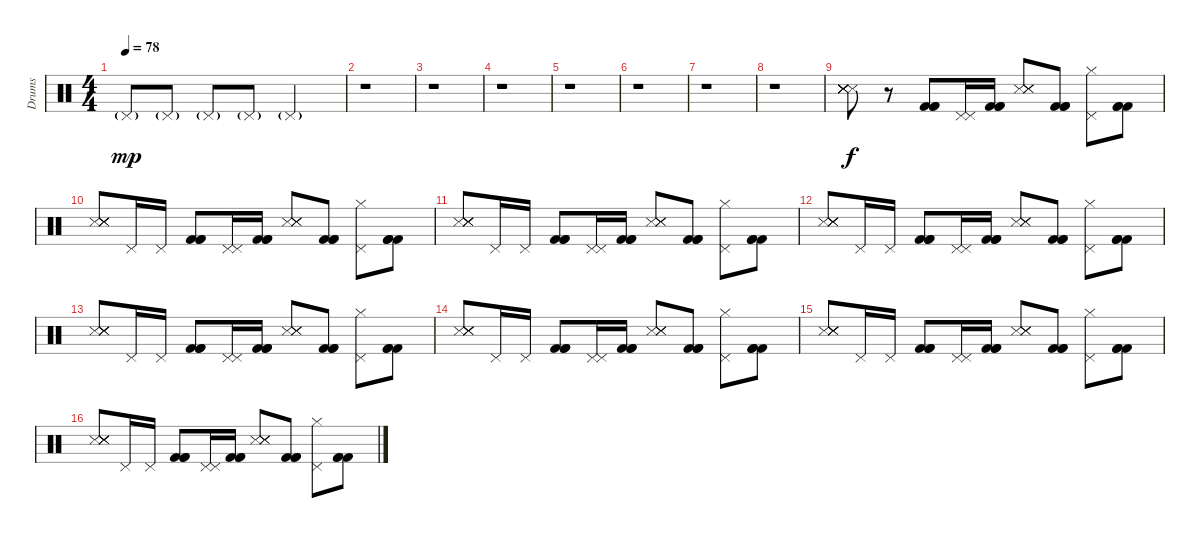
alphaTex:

\track ("Drums" "Drums") {instrument percussion}
\staff {score}
\articulation defaults
\ts (4 4)
\tempo 78
\clef neutral
\ks c "Pedal Hi-Hat (hit)"{g}.8{dy mp} "Pedal Hi-Hat (hit)"{g}.8 "Pedal Hi-Hat (hit)"{g}.8 "Pedal Hi-Hat (hit)"{g}.8 "Pedal Hi-Hat (hit)"{g}.2
|
r.1 |
r.1 |
r.1 |
r.1 |
r.1 |
r.1 |
r.1 |
("Metronome (hit)" "Metronome (hit)" "Snare (side stick) 3" "Snare (side stick) 3" "Snare (side stick) 3" "Snare (side stick) 3").8{dy f} r.8 ("Kick (hit) 2" "Kick (hit) 2" "Kick (hit) 2").8 ("Pedal Hi-Hat (hit)" "Pedal Hi-Hat (hit)").16 ("Kick (hit) 2" "Kick (hit) 2" "Kick (hit) 2").16 ("Metronome (hit)" "Metronome (hit)" "Metronome (hit)" "Snare (side stick) 3").8 ("Kick (hit) 2" "Kick (hit) 2" "Kick (hit) 2").8 ("Pedal Hi-Hat (hit)" "Hi-Hat (closed)").8 ("Kick (hit) 2" "Kick (hit) 2" "Kick (hit) 2").8 |
("Metronome (hit)" "Metronome (hit)" "Metronome (hit)" "Metronome (hit)" "Snare (side stick) 3").8 "Pedal Hi-Hat (hit)".16 "Pedal Hi-Hat (hit)".16 ("Kick (hit) 2" "Kick (hit) 2" "Kick (hit) 2").8 ("Pedal Hi-Hat (hit)" "Pedal Hi-Hat (hit)").16 ("Kick (hit) 2" "Kick (hit) 2" "Kick (hit) 2").16 ("Metronome (hit)" "Metronome (hit)" "Metronome (hit)" "Snare (side stick) 3").8 ("Kick (hit) 2" "Kick (hit) 2" "Kick (hit) 2").8 ("Pedal Hi-Hat (hit)" "Hi-Hat (closed)").8 ("Kick (hit) 2" "Kick (hit) 2" "Kick (hit) 2").8 |
("Metronome (hit)" "Metronome (hit)" "Metronome (hit)" "Metronome (hit)" "Snare (side stick) 3").8 "Pedal Hi-Hat (hit)".16 "Pedal Hi-Hat (hit)".16 ("Kick (hit) 2" "Kick (hit) 2" "Kick (hit) 2").8 ("Pedal Hi-Hat (hit)" "Pedal Hi-Hat (hit)").16 ("Kick (hit) 2" "Kick (hit) 2" "Kick (hit) 2").16 ("Metronome (hit)" "Metronome (hit)" "Metronome (hit)" "Snare (side stick) 3").8 ("Kick (hit) 2" "Kick (hit) 2" "Kick (hit) 2").8 ("Pedal Hi-Hat (hit)" "Hi-Hat (closed)").8 ("Kick (hit) 2" "Kick (hit) 2" "Kick (hit) 2").8 |
("Metronome (hit)" "Metronome (hit)" "Metronome (hit)" "Metronome (hit)" "Snare (side stick) 3").8 "Pedal Hi-Hat (hit)".16 "Pedal Hi-Hat (hit)".16 ("Kick (hit) 2" "Kick (hit) 2" "Kick (hit) 2").8 ("Pedal Hi-Hat (hit)" "Pedal Hi-Hat (hit)").16 ("Kick (hit) 2" "Kick (hit) 2" "Kick (hit) 2").16 ("Metronome (hit)" "Metronome (hit)" "Metronome (hit)" "Snare (side stick) 3").8 ("Kick (hit) 2" "Kick (hit) 2" "Kick (hit) 2").8 ("Pedal Hi-Hat (hit)" "Hi-Hat (closed)").8 ("Kick (hit) 2" "Kick (hit) 2" "Kick (hit) 2").8 |
("Metronome (hit)" "Metronome (hit)" "Metronome (hit)" "Metronome (hit)" "Snare (side stick) 3").8 "Pedal Hi-Hat (hit)".16 "Pedal Hi-Hat (hit)".16 ("Kick (hit) 2" "Kick (hit) 2" "Kick (hit) 2").8 ("Pedal Hi-Hat (hit)" "Pedal Hi-Hat (hit)").16 ("Kick (hit) 2" "Kick (hit) 2" "Kick (hit) 2").16 ("Metronome (hit)" "Metronome (hit)" "Metronome (hit)" "Snare (side stick) 3").8 ("Kick (hit) 2" "Kick (hit) 2" "Kick (hit) 2").8 ("Pedal Hi-Hat (hit)" "Hi-Hat (closed)").8 ("Kick (hit) 2" "Kick (hit) 2" "Kick (hit) 2").8 |
("Metronome (hit)" "Metronome (hit)" "Metronome (hit)" "Metronome (hit)" "Snare (side stick) 3").8 "Pedal Hi-Hat (hit)".16 "Pedal Hi-Hat (hit)".16 ("Kick (hit) 2" "Kick (hit) 2" "Kick (hit) 2").8 ("Pedal Hi-Hat (hit)" "Pedal Hi-Hat (hit)").16 ("Kick (hit) 2" "Kick (hit) 2" "Kick (hit) 2").16 ("Metronome (hit)" "Metronome (hit)" "Metronome (hit)" "Snare (side stick) 3").8 ("Kick (hit) 2" "Kick (hit) 2" "Kick (hit) 2").8 ("Pedal Hi-Hat (hit)" "Hi-Hat (closed)").8 ("Kick (hit) 2" "Kick (hit) 2" "Kick (hit) 2").8 |
("Metronome (hit)" "Metronome (hit)" "Metronome (hit)" "Metronome (hit)" "Snare (side stick) 3").8 "Pedal Hi-Hat (hit)".16 "Pedal Hi-Hat (hit)".16 ("Kick (hit) 2" "Kick (hit) 2" "Kick (hit) 2").8 ("Pedal Hi-Hat (hit)" "Pedal Hi-Hat (hit)").16 ("Kick (hit) 2" "Kick (hit) 2" "Kick (hit) 2").16 ("Metronome (hit)" "Metronome (hit)" "Metronome (hit)" "Snare (side stick) 3").8 ("Kick (hit) 2" "Kick (hit) 2" "Kick (hit) 2").8 ("Pedal Hi-Hat (hit)" "Hi-Hat (closed)").8 ("Kick (hit) 2" "Kick (hit) 2" "Kick (hit) 2").8 |
("Metronome (hit)" "Metronome (hit)" "Metronome (hit)" "Metronome (hit)" "Snare (side stick) 3").8 "Pedal Hi-Hat (hit)".16 "Pedal Hi-Hat (hit)".16 ("Kick (hit) 2" "Kick (hit) 2" "Kick (hit) 2").8 ("Pedal Hi-Hat (hit)" "Pedal Hi-Hat (hit)").16 ("Kick (hit) 2" "Kick (hit) 2" "Kick (hit) 2").16 ("Metronome (hit)" "Metronome (hit)" "Metronome (hit)" "Snare (side stick) 3").8 ("Kick (hit) 2" "Kick (hit) 2" "Kick (hit) 2").8 ("Pedal Hi-Hat (hit)" "Hi-Hat (closed)").8 ("Kick (hit) 2" "Kick (hit) 2" "Kick (hit) 2").8
